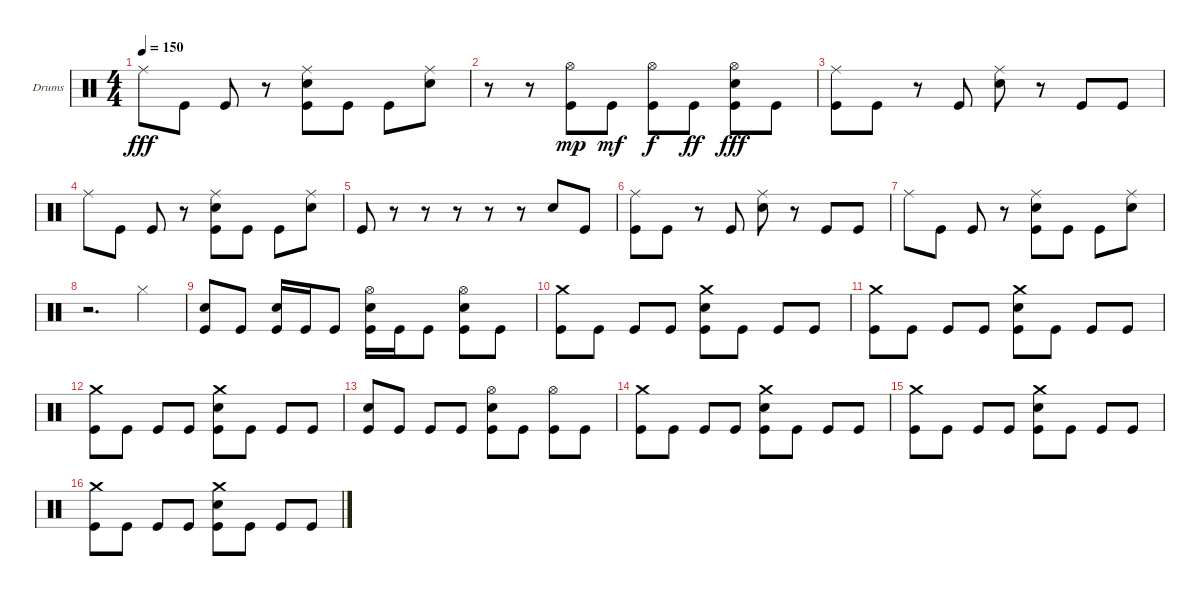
\bracketExtendMode groupsimilarinstruments
\firstSystemTrackNameOrientation horizontal
\otherSystemsTrackNameOrientation horizontal
\track ("Corey" "Drums") {instrument percussion}
\staff {score}
\articulation defaults
\ts (4 4)
\tempo 150
\clef neutral
\ks c "Ride (middle)".8{dy fff} "Kick (hit)".8 "Kick (hit)".8
r.8 ("Kick (hit)" "Ride (middle)" "Snare (hit) 2").8 "Kick (hit)".8 "Kick (hit)".8 ("Snare (hit) 2" "Ride (middle)").8 |
r.8 r.8 ("Hi-Hat (open)" "Kick (hit)").8{dy mp} "Kick (hit)".8{dy mf} ("Hi-Hat (open)" "Kick (hit)").8{dy f} "Kick (hit)".8{dy ff} ("Hi-Hat (open)" "Snare (hit) 2" "Kick (hit)").8{dy fff} "Kick (hit)".8 |
("Kick (hit)" "Ride (middle)").8 "Kick (hit)".8 r.8 "Kick (hit)".8 ("Snare (hit) 2" "Ride (middle)").8 r.8 "Kick (hit)".8 "Kick (hit)".8 |
"Ride (middle)".8 "Kick (hit)".8 "Kick (hit)".8 r.8 ("Kick (hit)" "Ride (middle)" "Snare (hit) 2").8 "Kick (hit)".8 "Kick (hit)".8 ("Snare (hit) 2" "Ride (middle)").8 |
"Kick (hit)".8 r.8 r.8 r.8 r.8 r.8 "Snare (hit) 2".8 "Kick (hit)".8 |
("Kick (hit)" "Ride (middle)").8 "Kick (hit)".8 r.8 "Kick (hit)".8 ("Snare (hit) 2" "Ride (middle)").8 r.8 "Kick (hit)".8 "Kick (hit)".8 |
"Ride (middle)".8 "Kick (hit)".8 "Kick (hit)".8 r.8 ("Kick (hit)" "Ride (middle)" "Snare (hit) 2").8 "Kick (hit)".8 "Kick (hit)".8 ("Snare (hit) 2" "Ride (middle)").8 |
r.2{d} "Hi-Hat (closed)".4 |
("Kick (hit)" "Snare (hit) 2").8 "Kick (hit)".8 ("Kick (hit)" "Snare (hit) 2").16 "Kick (hit)".16 "Kick (hit)".8 ("Kick (hit)" "Snare (hit) 2" "Hi-Hat (open)").16 "Kick (hit)".16 "Kick (hit)".8 ("Kick (hit)" "Snare (hit) 2" "Hi-Hat (open)").8 "Kick (hit)".8 |
("Kick (hit)" "Crash medium (hit)").8 "Kick (hit)".8 "Kick (hit)".8 "Kick (hit)".8 ("Kick (hit)" "Snare (hit) 2" "Crash medium (hit)").8 "Kick (hit)".8 "Kick (hit)".8 "Kick (hit)".8 |
("Kick (hit)" "Crash medium (hit)").8 "Kick (hit)".8 "Kick (hit)".8 "Kick (hit)".8 ("Kick (hit)" "Snare (hit) 2" "Crash medium (hit)").8 "Kick (hit)".8 "Kick (hit)".8 "Kick (hit)".8 |
("Kick (hit)" "Crash medium (hit)").8 "Kick (hit)".8 "Kick (hit)".8 "Kick (hit)".8 ("Kick (hit)" "Snare (hit) 2" "Crash medium (hit)").8 "Kick (hit)".8 "Kick (hit)".8 "Kick (hit)".8 |
("Kick (hit)" "Snare (hit) 2").8 "Kick (hit)".8 "Kick (hit)".8 "Kick (hit)".8 ("Kick (hit)" "Snare (hit) 2" "Hi-Hat (open)").8 "Kick (hit)".8 ("Kick (hit)" "Hi-Hat (open)").8 "Kick (hit)".8 |
("Kick (hit)" "Crash medium (hit)").8 "Kick (hit)".8 "Kick (hit)".8 "Kick (hit)".8 ("Kick (hit)" "Snare (hit) 2" "Crash medium (hit)").8 "Kick (hit)".8 "Kick (hit)".8 "Kick (hit)".8 |
("Kick (hit)" "Crash medium (hit)").8 "Kick (hit)".8 "Kick (hit)".8 "Kick (hit)".8 ("Kick (hit)" "Snare (hit) 2" "Crash medium (hit)").8 "Kick (hit)".8 "Kick (hit)".8 "Kick (hit)".8 |
("Kick (hit)" "Crash medium (hit)").8 "Kick (hit)".8 "Kick (hit)".8 "Kick (hit)".8 ("Kick (hit)" "Snare (hit) 2" "Crash medium (hit)").8 "Kick (hit)".8 "Kick (hit)".8 "Kick (hit)".8
